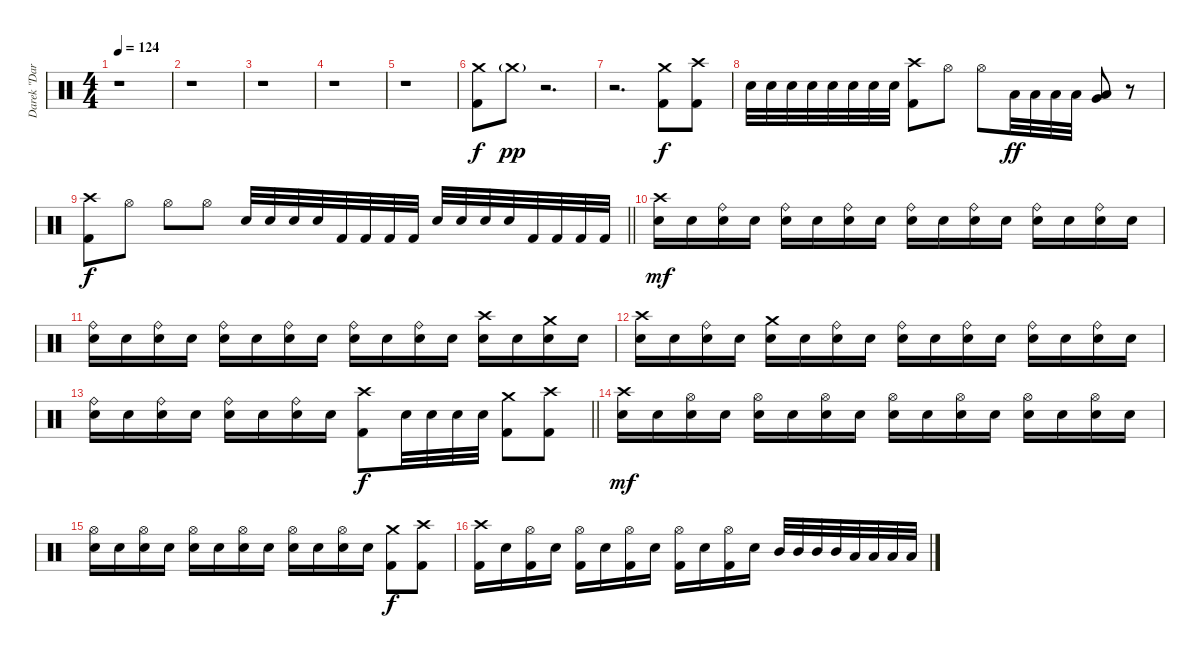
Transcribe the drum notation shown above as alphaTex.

\track ("Darek \"Daray\" Brzozowski " "Darek \"Dar") {instrument percussion}
\staff {score}
\articulation defaults
\ts (4 4)
\tempo 124
\clef neutral
\ks c
r.1{dy f} |
r.1 |
r.1 |
r.1 |
r.1 |
("Crash medium (hit)" "Kick (hit) 2").8 "Crash medium (hit)"{g}.8{dy pp} r.2{d} |
r.2{d} ("Crash medium (hit)" "Kick (hit) 2").8{dy f} ("Crash high (hit)" "Kick (hit) 2").8 |
"Electric Snare (hit)".32 "Electric Snare (hit)".32 "Electric Snare (hit)".32 "Electric Snare (hit)".32 "Electric Snare (hit)".32 "Electric Snare (hit)".32 "Electric Snare (hit)".32 "Electric Snare (hit)".32 ("Crash high (hit)" "Kick (hit) 2").8 "Hi-Hat (open)".8 "Hi-Hat (open)".8 "Low Floor Tom (hit)".32{dy ff} "Low Floor Tom (hit)".32 "Low Floor Tom (hit)".32 "Low Floor Tom (hit)".32 ("Very Low Tom (hit)" "Low Floor Tom (hit)").8 r.8 |
\barLineRight lightlight
("Crash high (hit)" "Kick (hit) 2").8{dy f} "Hi-Hat (open)".8 "Hi-Hat (open)".8 "Hi-Hat (open)".8 "Electric Snare (hit)".32 "Electric Snare (hit)".32 "Electric Snare (hit)".32 "Electric Snare (hit)".32 "Kick (hit) 2".32 "Kick (hit) 2".32 "Kick (hit) 2".32 "Kick (hit) 2".32 "Electric Snare (hit)".32 "Electric Snare (hit)".32 "Electric Snare (hit)".32 "Electric Snare (hit)".32 "Kick (hit) 2".32 "Kick (hit) 2".32 "Kick (hit) 2".32 "Kick (hit) 2".32 |
("Crash high (hit)" "Electric Snare (hit)").16{dy mf} "Electric Snare (hit)".16 ("Ride (bell)" "Electric Snare (hit)").16 "Electric Snare (hit)".16 ("Ride (bell)" "Electric Snare (hit)").16 "Electric Snare (hit)".16 ("Ride (bell)" "Electric Snare (hit)").16 "Electric Snare (hit)".16 ("Ride (bell)" "Electric Snare (hit)").16 "Electric Snare (hit)".16 ("Ride (bell)" "Electric Snare (hit)").16 "Electric Snare (hit)".16 ("Ride (bell)" "Electric Snare (hit)").16 "Electric Snare (hit)".16 ("Ride (bell)" "Electric Snare (hit)").16 "Electric Snare (hit)".16 |
("Ride (bell)" "Electric Snare (hit)").16 "Electric Snare (hit)".16 ("Ride (bell)" "Electric Snare (hit)").16 "Electric Snare (hit)".16 ("Ride (bell)" "Electric Snare (hit)").16 "Electric Snare (hit)".16 ("Ride (bell)" "Electric Snare (hit)").16 "Electric Snare (hit)".16 ("Ride (bell)" "Electric Snare (hit)").16 "Electric Snare (hit)".16 ("Ride (bell)" "Electric Snare (hit)").16 "Electric Snare (hit)".16 ("Crash high (hit)" "Electric Snare (hit)").16 "Electric Snare (hit)".16 ("Crash medium (hit)" "Electric Snare (hit)").16 "Electric Snare (hit)".16 |
("Crash high (hit)" "Electric Snare (hit)").16 "Electric Snare (hit)".16 ("Ride (bell)" "Electric Snare (hit)").16 "Electric Snare (hit)".16 ("Crash medium (hit)" "Electric Snare (hit)").16 "Electric Snare (hit)".16 ("Ride (bell)" "Electric Snare (hit)").16 "Electric Snare (hit)".16 ("Ride (bell)" "Electric Snare (hit)").16 "Electric Snare (hit)".16 ("Ride (bell)" "Electric Snare (hit)").16 "Electric Snare (hit)".16 ("Ride (bell)" "Electric Snare (hit)").16 "Electric Snare (hit)".16 ("Ride (bell)" "Electric Snare (hit)").16 "Electric Snare (hit)".16 |
\barLineRight lightlight
("Ride (bell)" "Electric Snare (hit)").16 "Electric Snare (hit)".16 ("Ride (bell)" "Electric Snare (hit)").16 "Electric Snare (hit)".16 ("Ride (bell)" "Electric Snare (hit)").16 "Electric Snare (hit)".16 ("Ride (bell)" "Electric Snare (hit)").16 "Electric Snare (hit)".16 ("Crash high (hit)" "Kick (hit) 2").8{dy f} "Electric Snare (hit)".32 "Electric Snare (hit)".32 "Electric Snare (hit)".32 "Electric Snare (hit)".32 ("Crash medium (hit)" "Kick (hit) 2").8 ("Crash high (hit)" "Kick (hit) 2").8 |
("Crash high (hit)" "Electric Snare (hit)").16{dy mf} "Electric Snare (hit)".16 ("Hi-Hat (open)" "Electric Snare (hit)").16 "Electric Snare (hit)".16 ("Hi-Hat (open)" "Electric Snare (hit)").16 "Electric Snare (hit)".16 ("Hi-Hat (open)" "Electric Snare (hit)").16 "Electric Snare (hit)".16 ("Hi-Hat (open)" "Electric Snare (hit)").16 "Electric Snare (hit)".16 ("Hi-Hat (open)" "Electric Snare (hit)").16 "Electric Snare (hit)".16 ("Hi-Hat (open)" "Electric Snare (hit)").16 "Electric Snare (hit)".16 ("Hi-Hat (open)" "Electric Snare (hit)").16 "Electric Snare (hit)".16 |
("Hi-Hat (open)" "Electric Snare (hit)").16 "Electric Snare (hit)".16 ("Hi-Hat (open)" "Electric Snare (hit)").16 "Electric Snare (hit)".16 ("Hi-Hat (open)" "Electric Snare (hit)").16 "Electric Snare (hit)".16 ("Hi-Hat (open)" "Electric Snare (hit)").16 "Electric Snare (hit)".16 ("Hi-Hat (open)" "Electric Snare (hit)").16 "Electric Snare (hit)".16 ("Hi-Hat (open)" "Electric Snare (hit)").16 "Electric Snare (hit)".16 ("Crash medium (hit)" "Kick (hit) 2").8{dy f} ("Crash high (hit)" "Kick (hit) 2").8 |
("Crash high (hit)" "Kick (hit) 2").16 "Electric Snare (hit)".16 ("Hi-Hat (open)" "Kick (hit) 2").16 "Electric Snare (hit)".16 ("Hi-Hat (open)" "Kick (hit) 2").16 "Electric Snare (hit)".16 ("Hi-Hat (open)" "Kick (hit) 2").16 "Electric Snare (hit)".16 ("Hi-Hat (open)" "Kick (hit) 2").16 "Electric Snare (hit)".16 ("Hi-Hat (open)" "Kick (hit) 2").16 "Electric Snare (hit)".16 "Mid Tom (hit)".32 "Mid Tom (hit)".32 "Mid Tom (hit)".32 "Mid Tom (hit)".32 "Low Tom (hit)".32 "Low Tom (hit)".32 "Low Tom (hit)".32 "Low Tom (hit)".32
